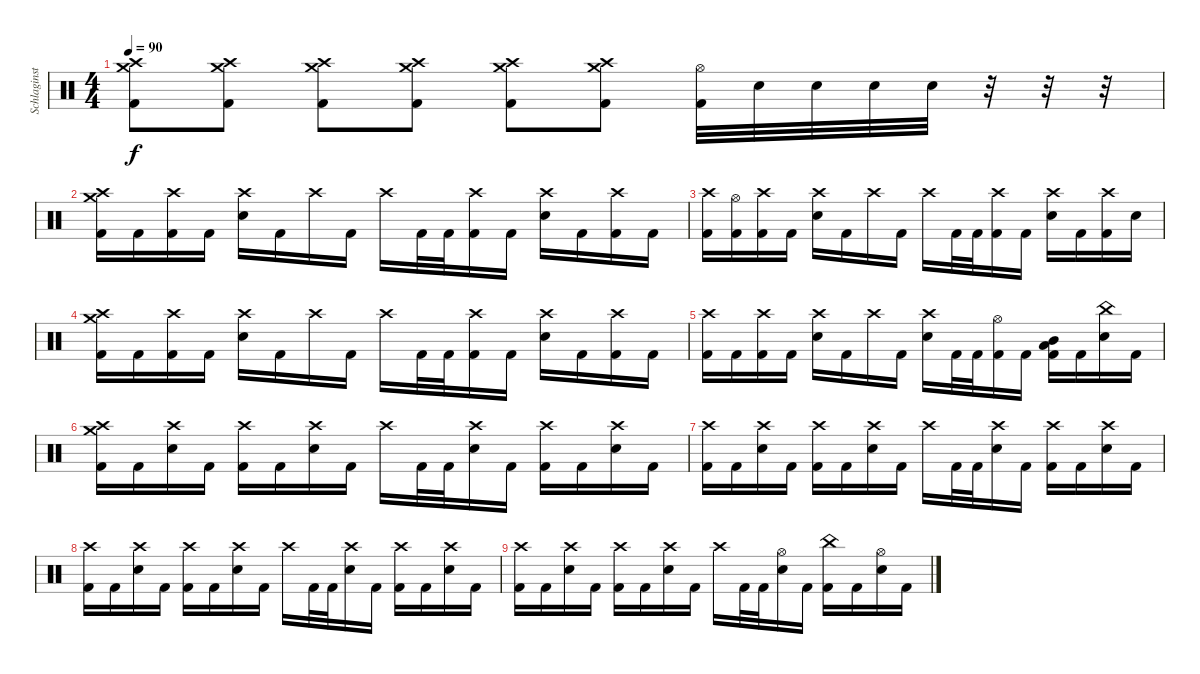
\track ("Schlaginstrumente - Auswahl" "Schlaginst") {instrument percussion}
\staff {score}
\articulation defaults
\ts (4 4)
\tempo 90
\clef neutral
\ks c
("Crash high (hit)" "Crash medium (hit)" "Kick (hit) 2").8{dy f} ("Crash high (hit)" "Crash medium (hit)" "Kick (hit) 2").8 ("Crash high (hit)" "Crash medium (hit)" "Kick (hit) 2").8 ("Crash high (hit)" "Crash medium (hit)" "Kick (hit) 2").8 ("Crash high (hit)" "Crash medium (hit)" "Kick (hit) 2").8 ("Crash high (hit)" "Crash medium (hit)" "Kick (hit) 2").8 ("Hi-Hat (open)" "Kick (hit) 2").32 "Electric Snare (hit)".32 "Electric Snare (hit)".32 "Electric Snare (hit)".32 "Electric Snare (hit)".32 r.32 r.32 r.32 |
("Crash high (hit)" "Crash medium (hit)" "Kick (hit) 2").16 "Kick (hit) 2".16 ("Crash high (hit)" "Kick (hit) 2").16 "Kick (hit) 2".16 ("Crash high (hit)" "Electric Snare (hit)").16 "Kick (hit) 2".16 "Crash high (hit)".16 "Kick (hit) 2".16 "Crash high (hit)".16 "Kick (hit) 2".32 "Kick (hit) 2".32 ("Crash high (hit)" "Kick (hit) 2").16 "Kick (hit) 2".16 ("Crash high (hit)" "Electric Snare (hit)").16 "Kick (hit) 2".16 ("Crash high (hit)" "Kick (hit) 2").16 "Kick (hit) 2".16 |
("Crash high (hit)" "Kick (hit) 2").16 ("Hi-Hat (open)" "Kick (hit) 2").16 ("Crash high (hit)" "Kick (hit) 2").16 "Kick (hit) 2".16 ("Crash high (hit)" "Electric Snare (hit)").16 "Kick (hit) 2".16 "Crash high (hit)".16 "Kick (hit) 2".16 "Crash high (hit)".16 "Kick (hit) 2".32 "Kick (hit) 2".32 ("Crash high (hit)" "Kick (hit) 2").16 "Kick (hit) 2".16 ("Crash high (hit)" "Electric Snare (hit)").16 "Kick (hit) 2".16 ("Crash high (hit)" "Kick (hit) 2").16 "Electric Snare (hit)".16 |
("Crash high (hit)" "Crash medium (hit)" "Kick (hit) 2").16 "Kick (hit) 2".16 ("Crash high (hit)" "Kick (hit) 2").16 "Kick (hit) 2".16 ("Crash high (hit)" "Electric Snare (hit)").16 "Kick (hit) 2".16 "Crash high (hit)".16 "Kick (hit) 2".16 "Crash high (hit)".16 "Kick (hit) 2".32 "Kick (hit) 2".32 ("Crash high (hit)" "Kick (hit) 2").16 "Kick (hit) 2".16 ("Crash high (hit)" "Electric Snare (hit)").16 "Kick (hit) 2".16 ("Crash high (hit)" "Kick (hit) 2").16 "Kick (hit) 2".16 |
("Crash high (hit)" "Kick (hit) 2").16 "Kick (hit) 2".16 ("Crash high (hit)" "Kick (hit) 2").16 "Kick (hit) 2".16 ("Crash high (hit)" "Electric Snare (hit)").16 "Kick (hit) 2".16 "Crash high (hit)".16 "Kick (hit) 2".16 ("Crash high (hit)" "Electric Snare (hit)").16 "Kick (hit) 2".32 "Kick (hit) 2".32 ("Hi-Hat (open)" "Kick (hit) 2").16 "Kick (hit) 2".16 ("Mid Tom (hit)" "Low Tom (hit)" "Kick (hit) 2").16 "Kick (hit) 2".16 ("China (hit)" "Electric Snare (hit)").16 "Kick (hit) 2".16 |
("Crash high (hit)" "Crash medium (hit)" "Kick (hit) 2").16 "Kick (hit) 2".16 ("Crash high (hit)" "Electric Snare (hit)").16 "Kick (hit) 2".16 ("Crash high (hit)" "Kick (hit) 2").16 "Kick (hit) 2".16 ("Crash high (hit)" "Electric Snare (hit)").16 "Kick (hit) 2".16 "Crash high (hit)".16 "Kick (hit) 2".32 "Kick (hit) 2".32 ("Crash high (hit)" "Electric Snare (hit)").16 "Kick (hit) 2".16 ("Crash high (hit)" "Kick (hit) 2").16 "Kick (hit) 2".16 ("Crash high (hit)" "Electric Snare (hit)").16 "Kick (hit) 2".16 |
("Crash high (hit)" "Kick (hit) 2").16 "Kick (hit) 2".16 ("Crash high (hit)" "Electric Snare (hit)").16 "Kick (hit) 2".16 ("Crash high (hit)" "Kick (hit) 2").16 "Kick (hit) 2".16 ("Crash high (hit)" "Electric Snare (hit)").16 "Kick (hit) 2".16 "Crash high (hit)".16 "Kick (hit) 2".32 "Kick (hit) 2".32 ("Crash high (hit)" "Electric Snare (hit)").16 "Kick (hit) 2".16 ("Crash high (hit)" "Kick (hit) 2").16 "Kick (hit) 2".16 ("Crash high (hit)" "Electric Snare (hit)").16 "Kick (hit) 2".16 |
("Crash high (hit)" "Kick (hit) 2").16 "Kick (hit) 2".16 ("Crash high (hit)" "Electric Snare (hit)").16 "Kick (hit) 2".16 ("Crash high (hit)" "Kick (hit) 2").16 "Kick (hit) 2".16 ("Crash high (hit)" "Electric Snare (hit)").16 "Kick (hit) 2".16 "Crash high (hit)".16 "Kick (hit) 2".32 "Kick (hit) 2".32 ("Crash high (hit)" "Electric Snare (hit)").16 "Kick (hit) 2".16 ("Crash high (hit)" "Kick (hit) 2").16 "Kick (hit) 2".16 ("Crash high (hit)" "Electric Snare (hit)").16 "Kick (hit) 2".16 |
("Crash high (hit)" "Kick (hit) 2").16 "Kick (hit) 2".16 ("Crash high (hit)" "Electric Snare (hit)").16 "Kick (hit) 2".16 ("Crash high (hit)" "Kick (hit) 2").16 "Kick (hit) 2".16 ("Crash high (hit)" "Electric Snare (hit)").16 "Kick (hit) 2".16 "Crash high (hit)".16 "Kick (hit) 2".32 "Kick (hit) 2".32 ("Hi-Hat (open)" "Electric Snare (hit)").16 "Kick (hit) 2".16 ("China (hit)" "Kick (hit) 2").16 "Kick (hit) 2".16 ("Hi-Hat (open)" "Electric Snare (hit)").16 "Kick (hit) 2".16
